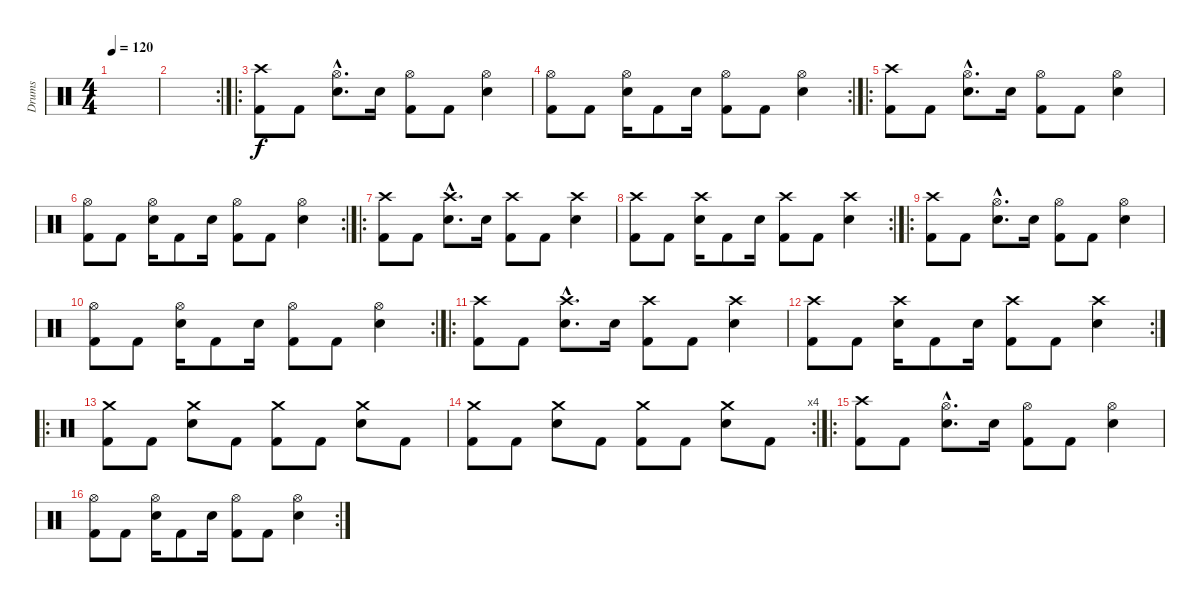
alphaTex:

\track ("Drums" "Drums") {instrument percussion}
\staff {score}
\articulation defaults
\ts (4 4)
\tempo 120
\clef neutral
\ks c
|
\rc 2
|
\ro
("Kick (hit) 2" "Crash high (hit)").8 "Kick (hit) 2".8 ("Electric Snare (hit)"{hac} "Hi-Hat (open)"{hac}).8{d} "Electric Snare (hit)".16 ("Kick (hit) 2" "Hi-Hat (open)").8 "Kick (hit) 2".8 ("Electric Snare (hit)" "Hi-Hat (open)").4 |
\rc 2
("Kick (hit) 2" "Hi-Hat (open)").8 "Kick (hit) 2".8 ("Electric Snare (hit)" "Hi-Hat (open)").16 "Kick (hit) 2".8 "Electric Snare (hit)".16 ("Kick (hit) 2" "Hi-Hat (open)").8 "Kick (hit) 2".8 ("Electric Snare (hit)" "Hi-Hat (open)").4 |
\ro
("Kick (hit) 2" "Crash high (hit)").8 "Kick (hit) 2".8 ("Electric Snare (hit)"{hac} "Hi-Hat (open)"{hac}).8{d} "Electric Snare (hit)".16 ("Kick (hit) 2" "Hi-Hat (open)").8 "Kick (hit) 2".8 ("Electric Snare (hit)" "Hi-Hat (open)").4 |
\rc 2
("Kick (hit) 2" "Hi-Hat (open)").8 "Kick (hit) 2".8 ("Electric Snare (hit)" "Hi-Hat (open)").16 "Kick (hit) 2".8 "Electric Snare (hit)".16 ("Kick (hit) 2" "Hi-Hat (open)").8 "Kick (hit) 2".8 ("Electric Snare (hit)" "Hi-Hat (open)").4 |
\ro
("Kick (hit) 2" "Crash high (hit)").8 "Kick (hit) 2".8 ("Electric Snare (hit)"{hac} "Crash high (hit)"{hac}).8{d} "Electric Snare (hit)".16 ("Kick (hit) 2" "Crash high (hit)").8 "Kick (hit) 2".8 ("Electric Snare (hit)" "Crash high (hit)").4 |
\rc 2
("Kick (hit) 2" "Crash high (hit)").8 "Kick (hit) 2".8 ("Electric Snare (hit)" "Crash high (hit)").16 "Kick (hit) 2".8 "Electric Snare (hit)".16 ("Kick (hit) 2" "Crash high (hit)").8 "Kick (hit) 2".8 ("Electric Snare (hit)" "Crash high (hit)").4 |
\ro
("Kick (hit) 2" "Crash high (hit)").8 "Kick (hit) 2".8 ("Electric Snare (hit)"{hac} "Hi-Hat (open)"{hac}).8{d} "Electric Snare (hit)".16 ("Kick (hit) 2" "Hi-Hat (open)").8 "Kick (hit) 2".8 ("Electric Snare (hit)" "Hi-Hat (open)").4 |
\rc 2
("Kick (hit) 2" "Hi-Hat (open)").8 "Kick (hit) 2".8 ("Electric Snare (hit)" "Hi-Hat (open)").16 "Kick (hit) 2".8 "Electric Snare (hit)".16 ("Kick (hit) 2" "Hi-Hat (open)").8 "Kick (hit) 2".8 ("Electric Snare (hit)" "Hi-Hat (open)").4 |
\ro
("Kick (hit) 2" "Crash high (hit)").8 "Kick (hit) 2".8 ("Electric Snare (hit)"{hac} "Crash high (hit)"{hac}).8{d} "Electric Snare (hit)".16 ("Kick (hit) 2" "Crash high (hit)").8 "Kick (hit) 2".8 ("Electric Snare (hit)" "Crash high (hit)").4 |
\rc 2
("Kick (hit) 2" "Crash high (hit)").8 "Kick (hit) 2".8 ("Electric Snare (hit)" "Crash high (hit)").16 "Kick (hit) 2".8 "Electric Snare (hit)".16 ("Kick (hit) 2" "Crash high (hit)").8 "Kick (hit) 2".8 ("Electric Snare (hit)" "Crash high (hit)").4 |
\ro
("Crash medium (hit)" "Kick (hit) 2").8 "Kick (hit) 2".8 ("Crash medium (hit)" "Electric Snare (hit)").8 "Kick (hit) 2".8 ("Crash medium (hit)" "Kick (hit) 2").8 "Kick (hit) 2".8 ("Crash medium (hit)" "Electric Snare (hit)").8 "Kick (hit) 2".8 |
\rc 4
("Crash medium (hit)" "Kick (hit) 2").8 "Kick (hit) 2".8 ("Crash medium (hit)" "Electric Snare (hit)").8 "Kick (hit) 2".8 ("Crash medium (hit)" "Kick (hit) 2").8 "Kick (hit) 2".8 ("Crash medium (hit)" "Electric Snare (hit)").8 "Kick (hit) 2".8 |
\ro
("Kick (hit) 2" "Crash high (hit)").8 "Kick (hit) 2".8 ("Electric Snare (hit)"{hac} "Hi-Hat (open)"{hac}).8{d} "Electric Snare (hit)".16 ("Kick (hit) 2" "Hi-Hat (open)").8 "Kick (hit) 2".8 ("Electric Snare (hit)" "Hi-Hat (open)").4 |
\rc 2
("Kick (hit) 2" "Hi-Hat (open)").8 "Kick (hit) 2".8 ("Electric Snare (hit)" "Hi-Hat (open)").16 "Kick (hit) 2".8 "Electric Snare (hit)".16 ("Kick (hit) 2" "Hi-Hat (open)").8 "Kick (hit) 2".8 ("Electric Snare (hit)" "Hi-Hat (open)").4
